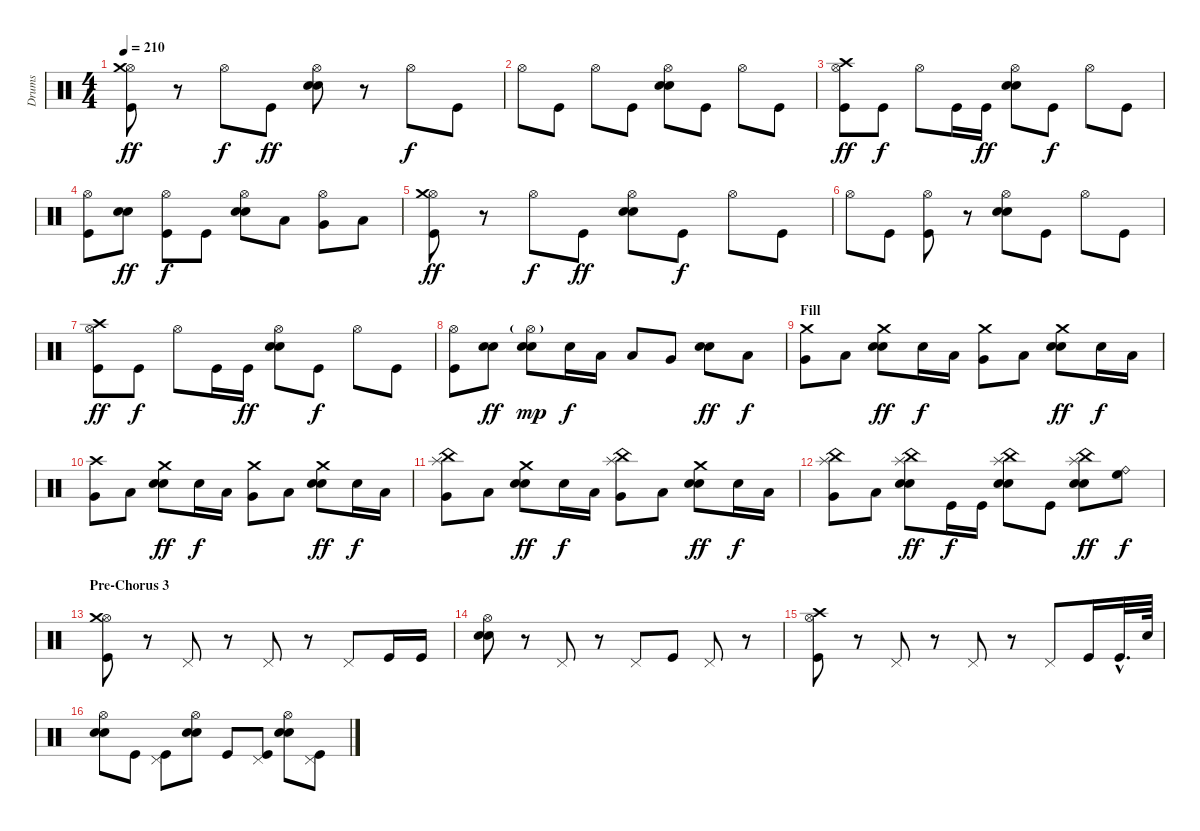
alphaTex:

\track ("Drums" "Drums") {instrument percussion}
\staff {score}
\articulation defaults
\ts (4 4)
\tempo 210
\clef neutral
\ks c
("Kick (hit)" "Hi-Hat (open)" "Crash medium (hit)").8{dy ff} r.8 "Hi-Hat (open)".8{dy f} "Kick (hit)".8{dy ff} ("Electric Snare (hit)" "Electric Snare (hit)" "Hi-Hat (open)").8 r.8 "Hi-Hat (open)".8{dy f} "Kick (hit)".8 |
"Hi-Hat (open)".8 "Kick (hit)".8 "Hi-Hat (open)".8 "Kick (hit)".8 ("Electric Snare (hit)" "Electric Snare (hit)" "Hi-Hat (open)").8 "Kick (hit)".8 "Hi-Hat (open)".8 "Kick (hit)".8 |
("Kick (hit)" "Hi-Hat (open)" "Crash high (hit)").8{dy ff} "Kick (hit)".8{dy f} "Hi-Hat (open)".8 "Kick (hit)".16 "Kick (hit)".16{dy ff} ("Electric Snare (hit)" "Electric Snare (hit)" "Hi-Hat (open)").8 "Kick (hit)".8{dy f} "Hi-Hat (open)".8 "Kick (hit)".8 |
("Kick (hit)" "Hi-Hat (open)").8 ("Electric Snare (hit)" "Electric Snare (hit)").8{dy ff} ("Kick (hit)" "Hi-Hat (open)").8{dy f} "Kick (hit)".8 ("Electric Snare (hit)" "Electric Snare (hit)" "Hi-Hat (open)").8 "Low Tom (hit)".8 ("Very Low Tom (hit)" "Hi-Hat (open)").8 "Low Floor Tom (hit)".8 |
("Kick (hit)" "Hi-Hat (open)" "Crash medium (hit)").8{dy ff} r.8 "Hi-Hat (open)".8{dy f} "Kick (hit)".8{dy ff} ("Electric Snare (hit)" "Electric Snare (hit)" "Hi-Hat (open)").8 "Kick (hit)".8{dy f} "Hi-Hat (open)".8 "Kick (hit)".8 |
"Hi-Hat (open)".8 "Kick (hit)".8 ("Kick (hit)" "Hi-Hat (open)").8 r.8 ("Electric Snare (hit)" "Electric Snare (hit)" "Hi-Hat (open)").8 "Kick (hit)".8 "Hi-Hat (open)".8 "Kick (hit)".8 |
("Kick (hit)" "Hi-Hat (open)" "Crash high (hit)").8{dy ff} "Kick (hit)".8{dy f} "Hi-Hat (open)".8 "Kick (hit)".16 "Kick (hit)".16{dy ff} ("Electric Snare (hit)" "Electric Snare (hit)" "Hi-Hat (open)").8 "Kick (hit)".8{dy f} "Hi-Hat (open)".8 "Kick (hit)".8 |
("Kick (hit)" "Hi-Hat (open)").8 ("Electric Snare (hit)" "Electric Snare (hit)").8{dy ff} ("Electric Snare (hit)" "Electric Snare (hit)" "Hi-Hat (open)"{g}).8{dy mp} "Electric Snare (hit)".16{dy f} "Low Tom (hit)".16 "Low Tom (hit)".8 "Very Low Tom (hit)".8 ("Electric Snare (hit)" "Electric Snare (hit)").8{dy ff} "Low Floor Tom (hit)".8{dy f} |
\section ("" "Fill")
("Very Low Tom (hit)" "Crash medium (hit)").8 "Low Floor Tom (hit)".8 ("Electric Snare (hit)" "Electric Snare (hit)" "Crash medium (hit)").8{dy ff} "Electric Snare (hit)".16{dy f} "Low Tom (hit)".16 ("Very Low Tom (hit)" "Crash medium (hit)").8 "Low Floor Tom (hit)".8 ("Electric Snare (hit)" "Electric Snare (hit)" "Crash medium (hit)").8{dy ff} "Electric Snare (hit)".16{dy f} "Low Tom (hit)".16 |
("Very Low Tom (hit)" "Crash high (hit)").8 "Low Floor Tom (hit)".8 ("Electric Snare (hit)" "Electric Snare (hit)" "Crash medium (hit)").8{dy ff} "Electric Snare (hit)".16{dy f} "Low Tom (hit)".16 ("Very Low Tom (hit)" "Crash medium (hit)").8 "Low Floor Tom (hit)".8 ("Electric Snare (hit)" "Electric Snare (hit)" "Crash medium (hit)").8{dy ff} "Electric Snare (hit)".16{dy f} "Low Tom (hit)".16 |
("Very Low Tom (hit)" "Splash (hit)" "China (hit)").8 "Low Floor Tom (hit)".8 ("Electric Snare (hit)" "Electric Snare (hit)" "Crash medium (hit)").8{dy ff} "Electric Snare (hit)".16{dy f} "Low Tom (hit)".16 ("Very Low Tom (hit)" "Splash (hit)" "China (hit)").8 "Low Floor Tom (hit)".8 ("Electric Snare (hit)" "Electric Snare (hit)" "Crash medium (hit)").8{dy ff} "Electric Snare (hit)".16{dy f} "Low Tom (hit)".16 |
("Very Low Tom (hit)" "Splash (hit)" "China (hit)").8 "Low Floor Tom (hit)".8 ("Electric Snare (hit)" "Electric Snare (hit)" "Splash (hit)" "China (hit)").8{dy ff} "Kick (hit)".16{dy f} "Kick (hit)".16 ("Electric Snare (hit)" "Electric Snare (hit)" "Splash (hit)" "China (hit)").8 "Kick (hit)".8 ("Electric Snare (hit)" "Electric Snare (hit)" "Splash (hit)" "China (hit)").8{dy ff} ("Ride (bell)" "High Floor Tom (hit)").8{dy f} |
\section ("" "Pre-Chorus 3")
("Kick (hit)" "Hi-Hat (open)" "Crash medium (hit)").8 r.8 "Pedal Hi-Hat (hit)".8 r.8 "Pedal Hi-Hat (hit)".8 r.8 "Pedal Hi-Hat (hit)".8 "Kick (hit)".16 "Kick (hit)".16 |
("Electric Snare (hit)" "Hi-Hat (open)" "Electric Snare (hit)").8 r.8 "Pedal Hi-Hat (hit)".8 r.8 "Pedal Hi-Hat (hit)".8 "Kick (hit)".8 "Pedal Hi-Hat (hit)".8 r.8 |
("Kick (hit)" "Hi-Hat (open)" "Crash high (hit)").8 r.8 "Pedal Hi-Hat (hit)".8 r.8 "Pedal Hi-Hat (hit)".8 r.8 "Pedal Hi-Hat (hit)".8 "Kick (hit)".16 "Kick (hit)"{hac}.32{d} "Electric Snare (hit)".64 |
("Electric Snare (hit)" "Hi-Hat (open)" "Electric Snare (hit)").8 "Kick (hit)".8 ("Kick (hit)" "Pedal Hi-Hat (hit)").8 ("Electric Snare (hit)" "Hi-Hat (open)" "Electric Snare (hit)").8 "Kick (hit)".8 ("Kick (hit)" "Pedal Hi-Hat (hit)").8 ("Electric Snare (hit)" "Hi-Hat (open)" "Electric Snare (hit)").8 ("Kick (hit)" "Pedal Hi-Hat (hit)").8
